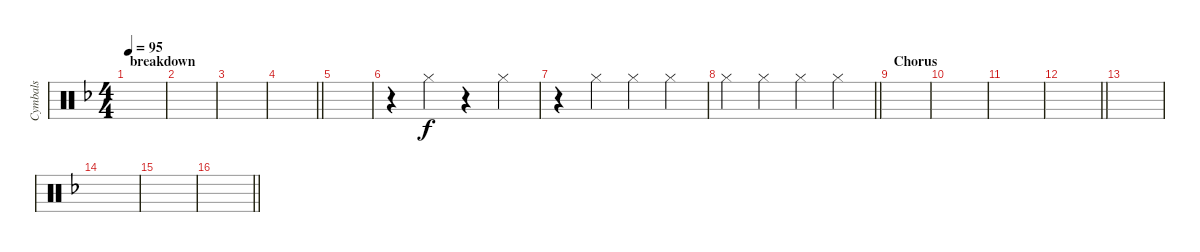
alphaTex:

\track ("Cymbals" "Cymbals") {instrument percussion}
\staff {score}
\articulation defaults
\ts (4 4)
\section ("" "breakdown")
\tempo 95
\clef neutral
\ks dminor
|
|
|
\barLineRight lightlight
|
|
r.4 "Hi-Hat (closed)".4 r.4 "Hi-Hat (closed)".4 |
r.4 "Hi-Hat (closed)".4 "Hi-Hat (closed)".4 "Hi-Hat (closed)".4 |
\barLineRight lightlight "Hi-Hat (closed)".4 "Hi-Hat (closed)".4 "Hi-Hat (closed)".4 "Hi-Hat (closed)".4
|
\section ("" "Chorus")
|
|
|
\barLineRight lightlight
|
|
|
|
\barLineRight lightlight
